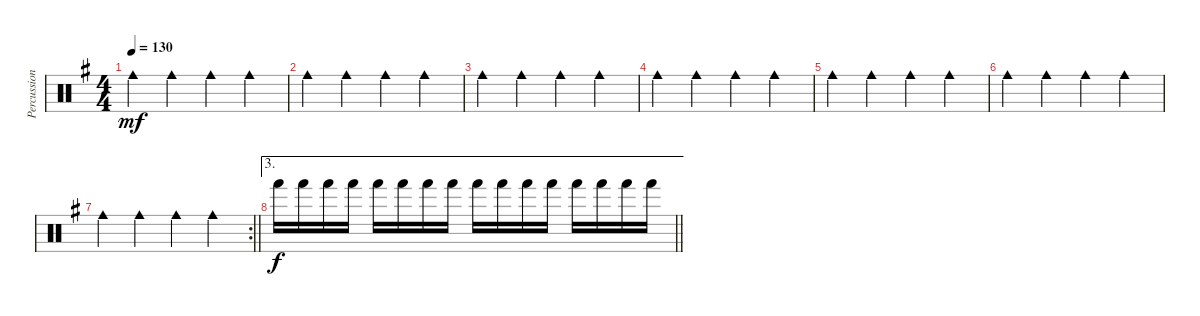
\track ("Percussion" "Percussion") {instrument percussion}
\staff {score}
\articulation defaults
\ts (4 4)
\tempo 130
\clef neutral
\ks g "Cowbell medium (hit)".4{dy mf} "Cowbell medium (hit)".4 "Cowbell medium (hit)".4 "Cowbell medium (hit)".4
|
"Cowbell medium (hit)".4 "Cowbell medium (hit)".4 "Cowbell medium (hit)".4 "Cowbell medium (hit)".4 |
"Cowbell medium (hit)".4 "Cowbell medium (hit)".4 "Cowbell medium (hit)".4 "Cowbell medium (hit)".4 |
"Cowbell medium (hit)".4 "Cowbell medium (hit)".4 "Cowbell medium (hit)".4 "Cowbell medium (hit)".4 |
"Cowbell medium (hit)".4 "Cowbell medium (hit)".4 "Cowbell medium (hit)".4 "Cowbell medium (hit)".4 |
"Cowbell medium (hit)".4 "Cowbell medium (hit)".4 "Cowbell medium (hit)".4 "Cowbell medium (hit)".4 |
\rc 2
\barLineRight lightlight "Cowbell medium (hit)".4 "Cowbell medium (hit)".4 "Cowbell medium (hit)".4 "Cowbell medium (hit)".4
|
\ae 3
\barLineRight lightlight "Hand (hit)".16{dy f} "Hand (hit)".16 "Hand (hit)".16 "Hand (hit)".16 "Hand (hit)".16 "Hand (hit)".16 "Hand (hit)".16 "Hand (hit)".16 "Hand (hit)".16 "Hand (hit)".16 "Hand (hit)".16 "Hand (hit)".16 "Hand (hit)".16 "Hand (hit)".16 "Hand (hit)".16 "Hand (hit)".16
